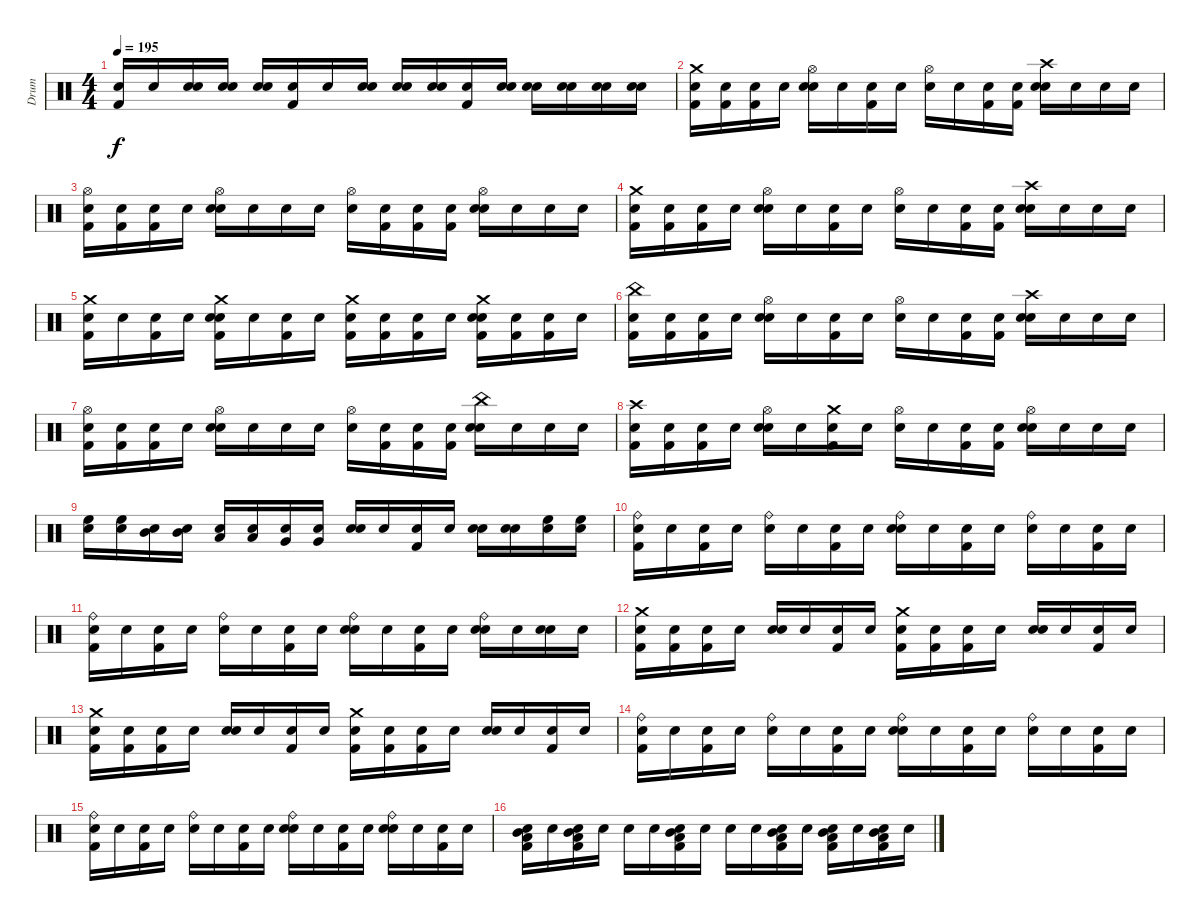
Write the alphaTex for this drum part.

\track ("Drum" "Drum") {instrument percussion}
\staff {score}
\articulation defaults
\ts (4 4)
\tempo 195
\clef neutral
\ks c
("Snare (hit)" "Kick (hit) 2").16{dy f} "Snare (hit)".16 ("Snare (hit)" "Snare (hit) 2").16 ("Snare (hit)" "Snare (hit) 2").16 ("Snare (hit)" "Snare (hit) 2").16 ("Snare (hit)" "Kick (hit) 2").16 "Snare (hit)".16 ("Snare (hit)" "Snare (hit) 2").16 ("Snare (hit)" "Snare (hit) 2").16 ("Snare (hit)" "Snare (hit) 2").16 ("Snare (hit)" "Kick (hit) 2").16 ("Snare (hit)" "Snare (hit) 2").16 ("Snare (hit)" "Snare (hit) 2").16 ("Snare (hit)" "Snare (hit) 2").16 ("Snare (hit)" "Snare (hit) 2").16 ("Snare (hit)" "Snare (hit) 2").16 |
("Crash medium (hit)" "Snare (hit)" "Kick (hit) 2").16 ("Snare (hit)" "Kick (hit) 2").16 ("Snare (hit)" "Kick (hit) 2").16 "Snare (hit)".16 ("Hi-Hat (open)" "Snare (hit) 2" "Snare (hit)").16 "Snare (hit)".16 ("Snare (hit)" "Kick (hit) 2").16 "Snare (hit)".16 ("Hi-Hat (open)" "Snare (hit)").16 "Snare (hit)".16 ("Snare (hit)" "Kick (hit) 2").16 ("Snare (hit)" "Kick (hit) 2").16 ("Crash high (hit)" "Snare (hit) 2" "Snare (hit)").16 "Snare (hit)".16 "Snare (hit)".16 "Snare (hit)".16 |
("Hi-Hat (open)" "Snare (hit)" "Kick (hit) 2").16 ("Snare (hit)" "Kick (hit) 2").16 ("Snare (hit)" "Kick (hit) 2").16 "Snare (hit)".16 ("Hi-Hat (open)" "Snare (hit) 2" "Snare (hit)").16 "Snare (hit)".16 "Snare (hit)".16 "Snare (hit)".16 ("Hi-Hat (open)" "Snare (hit)").16 ("Snare (hit)" "Kick (hit) 2").16 ("Snare (hit)" "Kick (hit) 2").16 ("Snare (hit)" "Kick (hit) 2").16 ("Hi-Hat (open)" "Snare (hit) 2" "Snare (hit)").16 "Snare (hit)".16 "Snare (hit)".16 "Snare (hit)".16 |
("Crash medium (hit)" "Snare (hit)" "Kick (hit) 2").16 ("Snare (hit)" "Kick (hit) 2").16 ("Snare (hit)" "Kick (hit) 2").16 "Snare (hit)".16 ("Hi-Hat (open)" "Snare (hit) 2" "Snare (hit)").16 "Snare (hit)".16 ("Snare (hit)" "Kick (hit) 2").16 "Snare (hit)".16 ("Hi-Hat (open)" "Snare (hit)").16 "Snare (hit)".16 ("Snare (hit)" "Kick (hit) 2").16 ("Snare (hit)" "Kick (hit) 2").16 ("Crash high (hit)" "Snare (hit) 2" "Snare (hit)").16 "Snare (hit)".16 "Snare (hit)".16 "Snare (hit)".16 |
("Crash medium (hit)" "Snare (hit)" "Kick (hit) 2").16 "Snare (hit)".16 ("Snare (hit)" "Kick (hit) 2").16 "Snare (hit)".16 ("Crash medium (hit)" "Snare (hit) 2" "Snare (hit)" "Kick (hit) 2").16 "Snare (hit)".16 ("Snare (hit)" "Kick (hit) 2").16 "Snare (hit)".16 ("Crash medium (hit)" "Snare (hit)" "Kick (hit) 2").16 ("Snare (hit)" "Kick (hit) 2").16 ("Snare (hit)" "Kick (hit) 2").16 "Snare (hit)".16 ("Crash medium (hit)" "Snare (hit) 2" "Snare (hit)" "Kick (hit) 2").16 ("Snare (hit)" "Kick (hit) 2").16 ("Snare (hit)" "Kick (hit) 2").16 "Snare (hit)".16 |
("China (hit)" "Snare (hit)" "Kick (hit) 2").16 ("Snare (hit)" "Kick (hit) 2").16 ("Snare (hit)" "Kick (hit) 2").16 "Snare (hit)".16 ("Hi-Hat (open)" "Snare (hit) 2" "Snare (hit)").16 "Snare (hit)".16 ("Snare (hit)" "Kick (hit) 2").16 "Snare (hit)".16 ("Hi-Hat (open)" "Snare (hit)").16 "Snare (hit)".16 ("Snare (hit)" "Kick (hit) 2").16 ("Snare (hit)" "Kick (hit) 2").16 ("Crash high (hit)" "Snare (hit) 2" "Snare (hit)").16 "Snare (hit)".16 "Snare (hit)".16 "Snare (hit)".16 |
("Hi-Hat (open)" "Snare (hit)" "Kick (hit) 2").16 ("Snare (hit)" "Kick (hit) 2").16 ("Snare (hit)" "Kick (hit) 2").16 "Snare (hit)".16 ("Hi-Hat (open)" "Snare (hit) 2" "Snare (hit)").16 "Snare (hit)".16 "Snare (hit)".16 "Snare (hit)".16 ("Hi-Hat (open)" "Snare (hit)").16 ("Snare (hit)" "Kick (hit) 2").16 ("Snare (hit)" "Kick (hit) 2").16 ("Snare (hit)" "Kick (hit) 2").16 ("China (hit)" "Snare (hit) 2" "Snare (hit)").16 "Snare (hit)".16 "Snare (hit)".16 "Snare (hit)".16 |
("Crash high (hit)" "Snare (hit)" "Kick (hit) 2").16 ("Snare (hit)" "Kick (hit) 2").16 ("Snare (hit)" "Kick (hit) 2").16 "Snare (hit)".16 ("Hi-Hat (open)" "Snare (hit) 2" "Snare (hit)").16 "Snare (hit)".16 ("Crash medium (hit)" "Snare (hit)" "Kick (hit) 2").16 "Snare (hit)".16 ("Hi-Hat (open)" "Snare (hit)").16 "Snare (hit)".16 ("Snare (hit)" "Kick (hit) 2").16 ("Snare (hit)" "Kick (hit) 2").16 ("Hi-Hat (open)" "Snare (hit) 2" "Snare (hit)").16 "Snare (hit)".16 "Snare (hit)".16 "Snare (hit)".16 |
("High Floor Tom (hit)" "Snare (hit)").16 ("High Floor Tom (hit)" "Snare (hit)").16 ("Mid Tom (hit)" "Snare (hit)").16 ("Mid Tom (hit)" "Snare (hit)").16 ("Low Tom (hit)" "Snare (hit)").16 ("Low Tom (hit)" "Snare (hit)").16 ("Very Low Tom (hit)" "Snare (hit)").16 ("Very Low Tom (hit)" "Snare (hit)").16 ("Snare (hit) 2" "Snare (hit)").16 "Snare (hit)".16 ("Kick (hit) 2" "Snare (hit)").16 "Snare (hit)".16 ("Snare (hit) 2" "Snare (hit)").16 ("Snare (hit) 2" "Snare (hit)").16 ("High Floor Tom (hit)" "Snare (hit)").16 ("High Floor Tom (hit)" "Snare (hit)").16 |
("Ride (bell)" "Snare (hit)" "Kick (hit) 2").16 "Snare (hit)".16 ("Snare (hit)" "Kick (hit) 2").16 "Snare (hit)".16 ("Ride (bell)" "Snare (hit)").16 "Snare (hit)".16 ("Snare (hit)" "Kick (hit) 2").16 "Snare (hit)".16 ("Ride (bell)" "Snare (hit)" "Snare (hit) 2").16 "Snare (hit)".16 ("Snare (hit)" "Kick (hit) 2").16 "Snare (hit)".16 ("Ride (bell)" "Snare (hit)").16 "Snare (hit)".16 ("Snare (hit)" "Kick (hit) 2").16 "Snare (hit)".16 |
("Ride (bell)" "Snare (hit)" "Kick (hit) 2").16 "Snare (hit)".16 ("Snare (hit)" "Kick (hit) 2").16 "Snare (hit)".16 ("Ride (bell)" "Snare (hit)").16 "Snare (hit)".16 ("Snare (hit)" "Kick (hit) 2").16 "Snare (hit)".16 ("Ride (bell)" "Snare (hit)" "Snare (hit) 2").16 "Snare (hit)".16 ("Snare (hit)" "Kick (hit) 2").16 "Snare (hit)".16 ("Ride (bell)" "Snare (hit)" "Snare (hit) 2").16 "Snare (hit)".16 ("Snare (hit)" "Snare (hit) 2").16 "Snare (hit)".16 |
("Crash medium (hit)" "Snare (hit)" "Kick (hit) 2").16 ("Snare (hit)" "Kick (hit) 2").16 ("Snare (hit)" "Kick (hit) 2").16 "Snare (hit)".16 ("Snare (hit)" "Snare (hit) 2").16 "Snare (hit)".16 ("Snare (hit)" "Kick (hit) 2").16 "Snare (hit)".16 ("Crash medium (hit)" "Snare (hit)" "Kick (hit) 2").16 ("Snare (hit)" "Kick (hit) 2").16 ("Snare (hit)" "Kick (hit) 2").16 "Snare (hit)".16 ("Snare (hit)" "Snare (hit) 2").16 "Snare (hit)".16 ("Snare (hit)" "Kick (hit) 2").16 "Snare (hit)".16 |
("Crash medium (hit)" "Snare (hit)" "Kick (hit) 2").16 ("Snare (hit)" "Kick (hit) 2").16 ("Snare (hit)" "Kick (hit) 2").16 "Snare (hit)".16 ("Snare (hit)" "Snare (hit) 2").16 "Snare (hit)".16 ("Snare (hit)" "Kick (hit) 2").16 "Snare (hit)".16 ("Crash medium (hit)" "Snare (hit)" "Kick (hit) 2").16 ("Snare (hit)" "Kick (hit) 2").16 ("Snare (hit)" "Kick (hit) 2").16 "Snare (hit)".16 ("Snare (hit)" "Snare (hit) 2").16 "Snare (hit)".16 ("Snare (hit)" "Kick (hit) 2").16 "Snare (hit)".16 |
("Ride (bell)" "Snare (hit)" "Kick (hit) 2").16 "Snare (hit)".16 ("Snare (hit)" "Kick (hit) 2").16 "Snare (hit)".16 ("Ride (bell)" "Snare (hit)").16 "Snare (hit)".16 ("Snare (hit)" "Kick (hit) 2").16 "Snare (hit)".16 ("Ride (bell)" "Snare (hit)" "Snare (hit) 2").16 "Snare (hit)".16 ("Snare (hit)" "Kick (hit) 2").16 "Snare (hit)".16 ("Ride (bell)" "Snare (hit)").16 "Snare (hit)".16 ("Snare (hit)" "Kick (hit) 2").16 "Snare (hit)".16 |
("Ride (bell)" "Snare (hit)" "Kick (hit) 2").16 "Snare (hit)".16 ("Snare (hit)" "Kick (hit) 2").16 "Snare (hit)".16 ("Ride (bell)" "Snare (hit)").16 "Snare (hit)".16 ("Snare (hit)" "Kick (hit) 2").16 "Snare (hit)".16 ("Ride (bell)" "Snare (hit)" "Snare (hit) 2").16 "Snare (hit)".16 ("Snare (hit)" "Kick (hit) 2").16 "Snare (hit)".16 ("Ride (bell)" "Snare (hit)" "Snare (hit) 2").16 "Snare (hit)".16 ("Snare (hit)" "Kick (hit) 2").16 "Snare (hit)".16 |
("Mid Tom (hit)" "Low Tom (hit)" "Snare (hit)" "Kick (hit) 2").16 "Snare (hit)".16 ("Mid Tom (hit)" "Low Tom (hit)" "Snare (hit)" "Kick (hit) 2").16 "Snare (hit)".16 "Snare (hit)".16 "Snare (hit)".16 ("Mid Tom (hit)" "Low Tom (hit)" "Snare (hit)" "Kick (hit) 2").16 "Snare (hit)".16 "Snare (hit)".16 "Snare (hit)".16 ("Mid Tom (hit)" "Low Tom (hit)" "Snare (hit)" "Kick (hit) 2").16 "Snare (hit)".16 ("Mid Tom (hit)" "Low Tom (hit)" "Snare (hit)" "Kick (hit) 2").16 "Snare (hit)".16 ("Mid Tom (hit)" "Low Tom (hit)" "Snare (hit)" "Kick (hit) 2").16 "Snare (hit)".16
